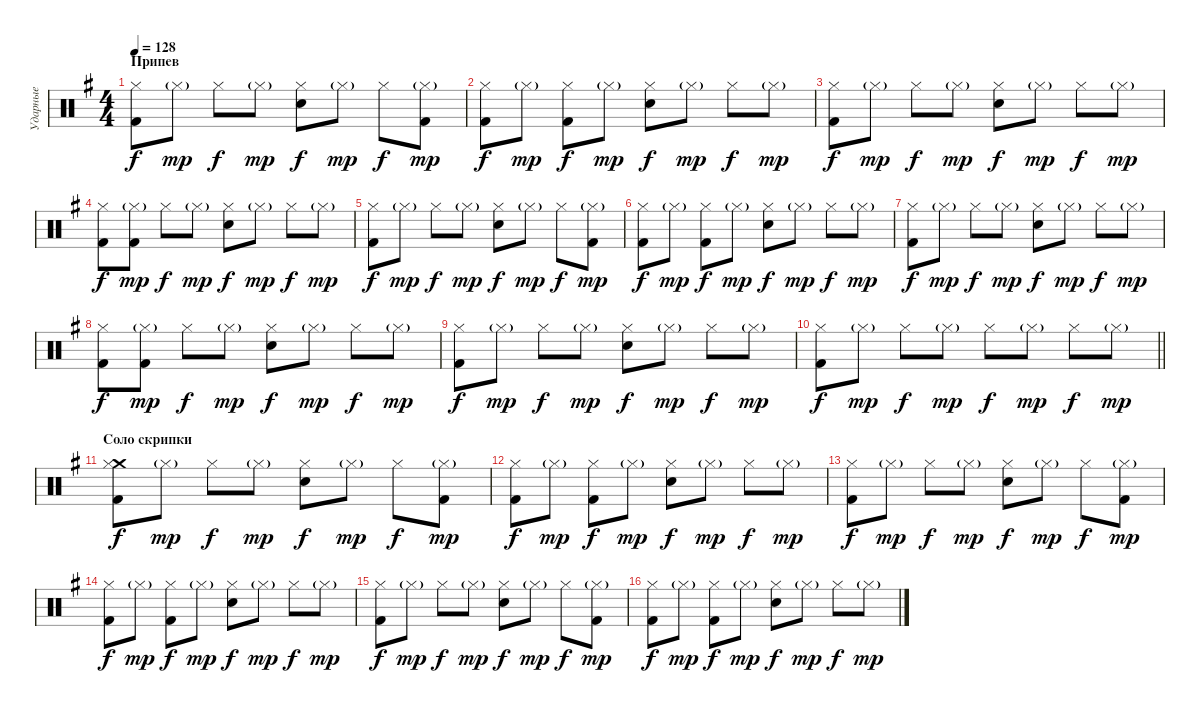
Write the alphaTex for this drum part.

\track ("Ударные" "Ударные") {instrument percussion}
\staff {score}
\articulation defaults
\ts (4 4)
\section ("" "Припев")
\tempo 128
\clef neutral
\ks eminor
("Hi-Hat (closed)" "Kick (hit) 2").8{dy f} "Hi-Hat (closed)"{g}.8{dy mp} "Hi-Hat (closed)".8{dy f} "Hi-Hat (closed)"{g}.8{dy mp} ("Hi-Hat (closed)" "Electric Snare (hit)").8{dy f} "Hi-Hat (closed)"{g}.8{dy mp} "Hi-Hat (closed)".8{dy f} ("Hi-Hat (closed)"{g} "Kick (hit) 2").8{dy mp} |
("Hi-Hat (closed)" "Kick (hit) 2").8{dy f} "Hi-Hat (closed)"{g}.8{dy mp} ("Hi-Hat (closed)" "Kick (hit) 2").8{dy f} "Hi-Hat (closed)"{g}.8{dy mp} ("Hi-Hat (closed)" "Electric Snare (hit)").8{dy f} "Hi-Hat (closed)"{g}.8{dy mp} "Hi-Hat (closed)".8{dy f} "Hi-Hat (closed)"{g}.8{dy mp} |
("Hi-Hat (closed)" "Kick (hit) 2").8{dy f} "Hi-Hat (closed)"{g}.8{dy mp} "Hi-Hat (closed)".8{dy f} "Hi-Hat (closed)"{g}.8{dy mp} ("Hi-Hat (closed)" "Electric Snare (hit)").8{dy f} "Hi-Hat (closed)"{g}.8{dy mp} "Hi-Hat (closed)".8{dy f} "Hi-Hat (closed)"{g}.8{dy mp} |
("Hi-Hat (closed)" "Kick (hit) 2").8{dy f} ("Hi-Hat (closed)"{g} "Kick (hit) 2").8{dy mp} "Hi-Hat (closed)".8{dy f} "Hi-Hat (closed)"{g}.8{dy mp} ("Hi-Hat (closed)" "Electric Snare (hit)").8{dy f} "Hi-Hat (closed)"{g}.8{dy mp} "Hi-Hat (closed)".8{dy f} "Hi-Hat (closed)"{g}.8{dy mp} |
("Hi-Hat (closed)" "Kick (hit) 2").8{dy f} "Hi-Hat (closed)"{g}.8{dy mp} "Hi-Hat (closed)".8{dy f} "Hi-Hat (closed)"{g}.8{dy mp} ("Hi-Hat (closed)" "Electric Snare (hit)").8{dy f} "Hi-Hat (closed)"{g}.8{dy mp} "Hi-Hat (closed)".8{dy f} ("Hi-Hat (closed)"{g} "Kick (hit) 2").8{dy mp} |
("Hi-Hat (closed)" "Kick (hit) 2").8{dy f} "Hi-Hat (closed)"{g}.8{dy mp} ("Hi-Hat (closed)" "Kick (hit) 2").8{dy f} "Hi-Hat (closed)"{g}.8{dy mp} ("Hi-Hat (closed)" "Electric Snare (hit)").8{dy f} "Hi-Hat (closed)"{g}.8{dy mp} "Hi-Hat (closed)".8{dy f} "Hi-Hat (closed)"{g}.8{dy mp} |
("Hi-Hat (closed)" "Kick (hit) 2").8{dy f} "Hi-Hat (closed)"{g}.8{dy mp} "Hi-Hat (closed)".8{dy f} "Hi-Hat (closed)"{g}.8{dy mp} ("Hi-Hat (closed)" "Electric Snare (hit)").8{dy f} "Hi-Hat (closed)"{g}.8{dy mp} "Hi-Hat (closed)".8{dy f} "Hi-Hat (closed)"{g}.8{dy mp} |
("Hi-Hat (closed)" "Kick (hit) 2").8{dy f} ("Hi-Hat (closed)"{g} "Kick (hit) 2").8{dy mp} "Hi-Hat (closed)".8{dy f} "Hi-Hat (closed)"{g}.8{dy mp} ("Hi-Hat (closed)" "Electric Snare (hit)").8{dy f} "Hi-Hat (closed)"{g}.8{dy mp} "Hi-Hat (closed)".8{dy f} "Hi-Hat (closed)"{g}.8{dy mp} |
("Hi-Hat (closed)" "Kick (hit) 2").8{dy f} "Hi-Hat (closed)"{g}.8{dy mp} "Hi-Hat (closed)".8{dy f} "Hi-Hat (closed)"{g}.8{dy mp} ("Hi-Hat (closed)" "Electric Snare (hit)").8{dy f} "Hi-Hat (closed)"{g}.8{dy mp} "Hi-Hat (closed)".8{dy f} "Hi-Hat (closed)"{g}.8{dy mp} |
\barLineRight lightlight
("Hi-Hat (closed)" "Kick (hit) 2").8{dy f} "Hi-Hat (closed)"{g}.8{dy mp} "Hi-Hat (closed)".8{dy f} "Hi-Hat (closed)"{g}.8{dy mp} "Hi-Hat (closed)".8{dy f} "Hi-Hat (closed)"{g}.8{dy mp} "Hi-Hat (closed)".8{dy f} "Hi-Hat (closed)"{g}.8{dy mp} |
\section ("" "Соло скрипки")
("Crash medium (hit)" "Hi-Hat (closed)" "Kick (hit) 2").8{dy f} "Hi-Hat (closed)"{g}.8{dy mp} "Hi-Hat (closed)".8{dy f} "Hi-Hat (closed)"{g}.8{dy mp} ("Hi-Hat (closed)" "Electric Snare (hit)").8{dy f} "Hi-Hat (closed)"{g}.8{dy mp} "Hi-Hat (closed)".8{dy f} ("Hi-Hat (closed)"{g} "Kick (hit) 2").8{dy mp} |
("Hi-Hat (closed)" "Kick (hit) 2").8{dy f} "Hi-Hat (closed)"{g}.8{dy mp} ("Hi-Hat (closed)" "Kick (hit) 2").8{dy f} "Hi-Hat (closed)"{g}.8{dy mp} ("Hi-Hat (closed)" "Electric Snare (hit)").8{dy f} "Hi-Hat (closed)"{g}.8{dy mp} "Hi-Hat (closed)".8{dy f} "Hi-Hat (closed)"{g}.8{dy mp} |
("Hi-Hat (closed)" "Kick (hit) 2").8{dy f} "Hi-Hat (closed)"{g}.8{dy mp} "Hi-Hat (closed)".8{dy f} "Hi-Hat (closed)"{g}.8{dy mp} ("Hi-Hat (closed)" "Electric Snare (hit)").8{dy f} "Hi-Hat (closed)"{g}.8{dy mp} "Hi-Hat (closed)".8{dy f} ("Hi-Hat (closed)"{g} "Kick (hit) 2").8{dy mp} |
("Hi-Hat (closed)" "Kick (hit) 2").8{dy f} "Hi-Hat (closed)"{g}.8{dy mp} ("Hi-Hat (closed)" "Kick (hit) 2").8{dy f} "Hi-Hat (closed)"{g}.8{dy mp} ("Hi-Hat (closed)" "Electric Snare (hit)").8{dy f} "Hi-Hat (closed)"{g}.8{dy mp} "Hi-Hat (closed)".8{dy f} "Hi-Hat (closed)"{g}.8{dy mp} |
("Hi-Hat (closed)" "Kick (hit) 2").8{dy f} "Hi-Hat (closed)"{g}.8{dy mp} "Hi-Hat (closed)".8{dy f} "Hi-Hat (closed)"{g}.8{dy mp} ("Hi-Hat (closed)" "Electric Snare (hit)").8{dy f} "Hi-Hat (closed)"{g}.8{dy mp} "Hi-Hat (closed)".8{dy f} ("Hi-Hat (closed)"{g} "Kick (hit) 2").8{dy mp} |
("Hi-Hat (closed)" "Kick (hit) 2").8{dy f} "Hi-Hat (closed)"{g}.8{dy mp} ("Hi-Hat (closed)" "Kick (hit) 2").8{dy f} "Hi-Hat (closed)"{g}.8{dy mp} ("Hi-Hat (closed)" "Electric Snare (hit)").8{dy f} "Hi-Hat (closed)"{g}.8{dy mp} "Hi-Hat (closed)".8{dy f} "Hi-Hat (closed)"{g}.8{dy mp}
